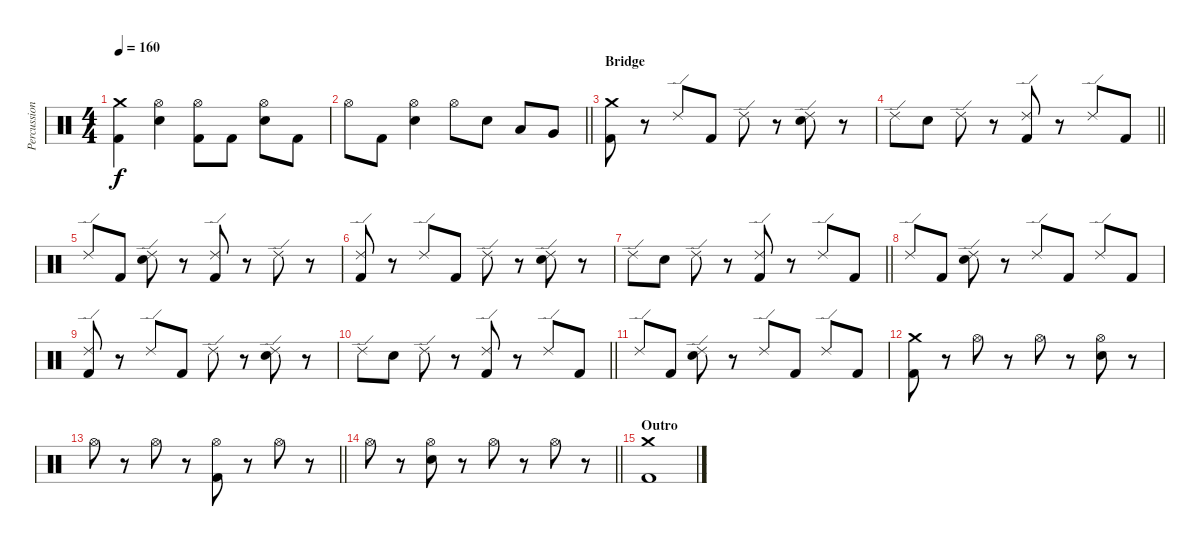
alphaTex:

\track ("Percussion" "Percussion") {instrument percussion}
\staff {score}
\articulation defaults
\ts (4 4)
\tempo 160
\clef neutral
\ks c
("Crash medium (hit)" "Kick (hit) 2").4{dy f} ("Hi-Hat (open)" "Electric Snare (hit)").4 ("Hi-Hat (open)" "Kick (hit) 2").8 "Kick (hit) 2".8 ("Hi-Hat (open)" "Electric Snare (hit)").8 "Kick (hit) 2".8 |
\barLineRight lightlight "Hi-Hat (open)".8 "Kick (hit) 2".8
("Hi-Hat (open)" "Electric Snare (hit)").4 "Hi-Hat (open)".8 "Electric Snare (hit)".8 "Low Tom (hit)".8 "Very Low Tom (hit)".8 |
\section ("" "Bridge")
("Crash medium (hit)" "Kick (hit) 2").8 r.8 "Ride (edge) 2".8 "Kick (hit) 2".8 "Ride (edge) 2".8 r.8 ("Ride (edge) 2" "Electric Snare (hit)").8 r.8 |
\barLineRight lightlight "Ride (edge) 2".8 "Electric Snare (hit)".8 "Ride (edge) 2".8
r.8 ("Ride (edge) 2" "Kick (hit) 2").8 r.8 "Ride (edge) 2".8 "Kick (hit) 2".8 |
"Ride (edge) 2".8 "Kick (hit) 2".8 ("Ride (edge) 2" "Electric Snare (hit)").8 r.8 ("Ride (edge) 2" "Kick (hit) 2").8 r.8 "Ride (edge) 2".8 r.8 |
("Ride (edge) 2" "Kick (hit) 2").8 r.8 "Ride (edge) 2".8 "Kick (hit) 2".8 "Ride (edge) 2".8 r.8 ("Ride (edge) 2" "Electric Snare (hit)").8 r.8 |
\barLineRight lightlight "Ride (edge) 2".8 "Electric Snare (hit)".8 "Ride (edge) 2".8
r.8 ("Ride (edge) 2" "Kick (hit) 2").8 r.8 "Ride (edge) 2".8 "Kick (hit) 2".8 |
"Ride (edge) 2".8 "Kick (hit) 2".8 ("Ride (edge) 2" "Electric Snare (hit)").8 r.8 "Ride (edge) 2".8 "Kick (hit) 2".8 "Ride (edge) 2".8 "Kick (hit) 2".8 |
("Ride (edge) 2" "Kick (hit) 2").8 r.8 "Ride (edge) 2".8 "Kick (hit) 2".8 "Ride (edge) 2".8 r.8 ("Ride (edge) 2" "Electric Snare (hit)").8 r.8 |
\barLineRight lightlight "Ride (edge) 2".8 "Electric Snare (hit)".8 "Ride (edge) 2".8
r.8 ("Ride (edge) 2" "Kick (hit) 2").8 r.8 "Ride (edge) 2".8 "Kick (hit) 2".8 |
"Ride (edge) 2".8 "Kick (hit) 2".8 ("Ride (edge) 2" "Electric Snare (hit)").8 r.8 "Ride (edge) 2".8 "Kick (hit) 2".8 "Ride (edge) 2".8 "Kick (hit) 2".8 |
("Crash medium (hit)" "Kick (hit) 2").8 r.8 "Hi-Hat (open)".8 r.8 "Hi-Hat (open)".8 r.8 ("Hi-Hat (open)" "Electric Snare (hit)").8 r.8 |
\barLineRight lightlight "Hi-Hat (open)".8
r.8 "Hi-Hat (open)".8 r.8 ("Hi-Hat (open)" "Kick (hit) 2").8 r.8 "Hi-Hat (open)".8 r.8 |
\barLineRight lightlight "Hi-Hat (open)".8
r.8 ("Hi-Hat (open)" "Electric Snare (hit)").8 r.8 "Hi-Hat (open)".8 r.8 "Hi-Hat (open)".8 r.8 |
\section ("" "Outro")
("Kick (hit) 2" "Crash medium (hit)").1
